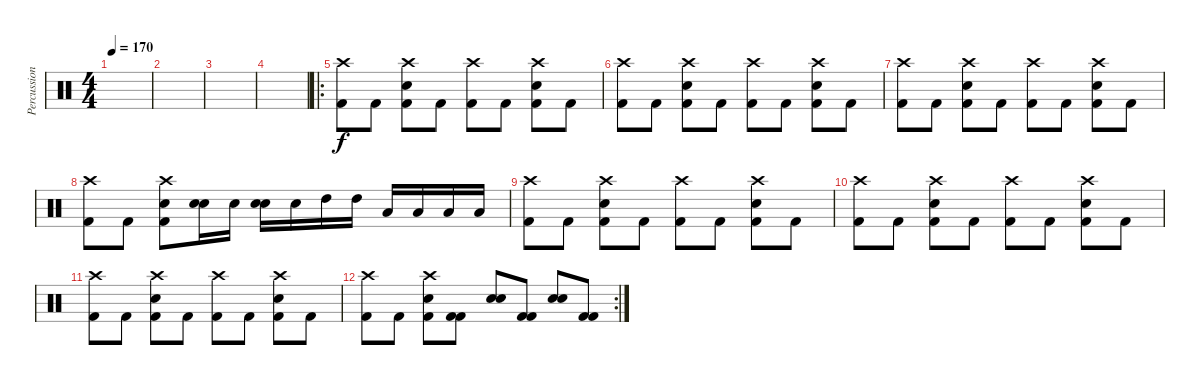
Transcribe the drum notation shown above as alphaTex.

\track ("Percussion" "Percussion") {instrument percussion}
\staff {score}
\articulation defaults
\ts (4 4)
\tempo 170
\clef neutral
\ks c
|
|
|
|
\ro
("Crash high (hit)" "Kick (hit) 2").8 "Kick (hit) 2".8 ("Crash high (hit)" "Electric Snare (hit)" "Kick (hit) 2").8 "Kick (hit) 2".8 ("Crash high (hit)" "Kick (hit) 2").8 "Kick (hit) 2".8 ("Crash high (hit)" "Electric Snare (hit)" "Kick (hit) 2").8 "Kick (hit) 2".8 |
("Crash high (hit)" "Kick (hit) 2").8 "Kick (hit) 2".8 ("Crash high (hit)" "Electric Snare (hit)" "Kick (hit) 2").8 "Kick (hit) 2".8 ("Crash high (hit)" "Kick (hit) 2").8 "Kick (hit) 2".8 ("Crash high (hit)" "Electric Snare (hit)" "Kick (hit) 2").8 "Kick (hit) 2".8 |
("Crash high (hit)" "Kick (hit) 2").8 "Kick (hit) 2".8 ("Crash high (hit)" "Electric Snare (hit)" "Kick (hit) 2").8 "Kick (hit) 2".8 ("Crash high (hit)" "Kick (hit) 2").8 "Kick (hit) 2".8 ("Crash high (hit)" "Electric Snare (hit)" "Kick (hit) 2").8 "Kick (hit) 2".8 |
("Crash high (hit)" "Kick (hit) 2").8 "Kick (hit) 2".8 ("Crash high (hit)" "Electric Snare (hit)" "Kick (hit) 2").8 ("Snare (hit) 2" "Electric Snare (hit)").16 "Electric Snare (hit)".16 ("Snare (hit) 2" "Electric Snare (hit)").16 "Electric Snare (hit)".16 "High Tom (hit)".16 "High Tom (hit)".16 "Low Tom (hit)".16 "Low Tom (hit)".16 "Low Floor Tom (hit)".16 "Low Floor Tom (hit)".16 |
("Crash high (hit)" "Kick (hit) 2").8 "Kick (hit) 2".8 ("Crash high (hit)" "Electric Snare (hit)" "Kick (hit) 2").8 "Kick (hit) 2".8 ("Crash high (hit)" "Kick (hit) 2").8 "Kick (hit) 2".8 ("Crash high (hit)" "Electric Snare (hit)" "Kick (hit) 2").8 "Kick (hit) 2".8 |
("Crash high (hit)" "Kick (hit) 2").8 "Kick (hit) 2".8 ("Crash high (hit)" "Electric Snare (hit)" "Kick (hit) 2").8 "Kick (hit) 2".8 ("Crash high (hit)" "Kick (hit) 2").8 "Kick (hit) 2".8 ("Crash high (hit)" "Electric Snare (hit)" "Kick (hit) 2").8 "Kick (hit) 2".8 |
("Crash high (hit)" "Kick (hit) 2").8 "Kick (hit) 2".8 ("Crash high (hit)" "Electric Snare (hit)" "Kick (hit) 2").8 "Kick (hit) 2".8 ("Crash high (hit)" "Kick (hit) 2").8 "Kick (hit) 2".8 ("Crash high (hit)" "Electric Snare (hit)" "Kick (hit) 2").8 "Kick (hit) 2".8 |
\rc 2
("Crash high (hit)" "Kick (hit) 2").8 "Kick (hit) 2".8 ("Crash high (hit)" "Electric Snare (hit)" "Kick (hit) 2").8 ("Kick (hit) 2" "Kick (hit) 2").8 ("Electric Snare (hit)" "Electric Snare (hit)").8 ("Kick (hit) 2" "Kick (hit) 2").8 ("Electric Snare (hit)" "Electric Snare (hit)").8 ("Kick (hit) 2" "Kick (hit) 2").8
